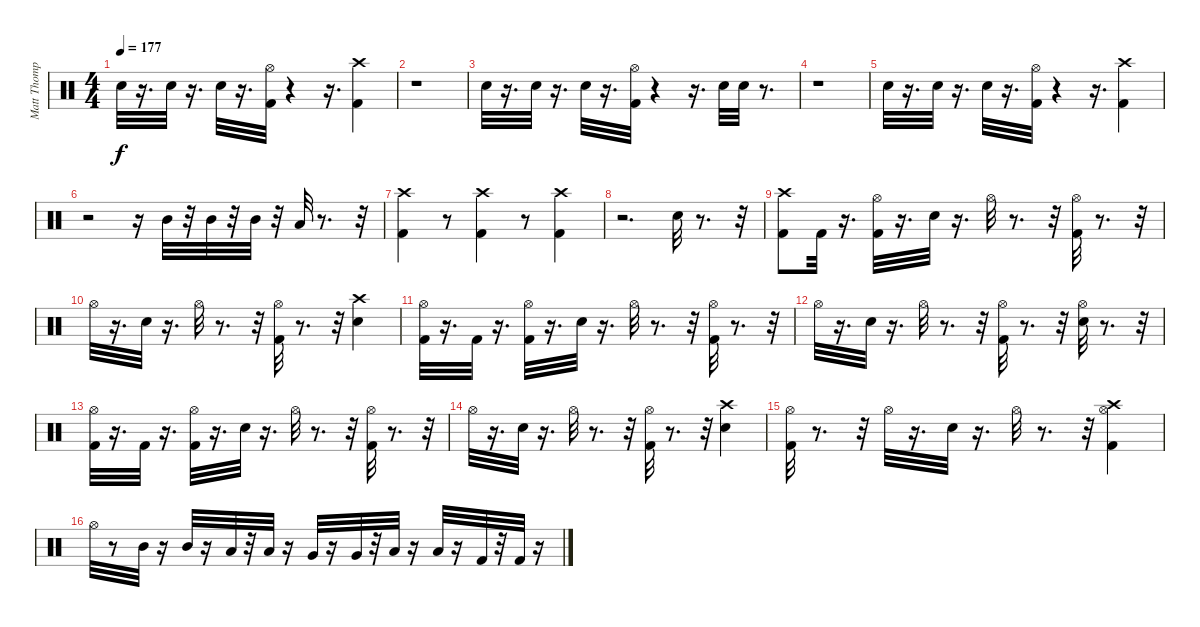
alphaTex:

\track ("Matt Thompson" "Matt Thomp") {instrument percussion}
\staff {score}
\articulation defaults
\ts (4 4)
\tempo 177
\clef neutral
\ks c "Snare (hit) 2".32{dy f}
r.16{d} "Snare (hit) 2".32 r.16{d} "Snare (hit) 2".32 r.16{d} ("Hi-Hat (open)" "Kick (hit) 2").32 r.4 r.16{d} ("Crash high (hit)" "Kick (hit) 2").4 |
r.1 |
"Snare (hit) 2".32 r.16{d} "Snare (hit) 2".32 r.16{d} "Snare (hit) 2".32 r.16{d} ("Hi-Hat (open)" "Kick (hit) 2").32 r.4 r.16{d} "Snare (hit) 2".32 "Snare (hit) 2".32 r.8{d} |
r.1 |
"Snare (hit) 2".32 r.16{d} "Snare (hit) 2".32 r.16{d} "Snare (hit) 2".32 r.16{d} ("Hi-Hat (open)" "Kick (hit) 2").32 r.4 r.16{d} ("Crash high (hit)" "Kick (hit) 2").4 |
r.2 r.16 "Mid Tom (hit)".32 r.32 "Mid Tom (hit)".32 r.32 "Mid Tom (hit)".32 r.32 "Low Tom (hit)".32 r.8{d} r.32 |
("Crash high (hit)" "Kick (hit) 2").4 r.8 ("Crash high (hit)" "Kick (hit) 2").4 r.8 ("Crash high (hit)" "Kick (hit) 2").4 |
r.2{d} "Snare (hit) 2".32 r.8{d} r.32 |
("Crash high (hit)" "Kick (hit) 2").8 "Kick (hit) 2".32 r.16{d} ("Hi-Hat (open)" "Kick (hit) 2").32 r.16{d} "Snare (hit) 2".32 r.16{d} "Hi-Hat (open)".32 r.8{d} r.32 ("Hi-Hat (open)" "Kick (hit) 2").32 r.8{d} r.32 |
"Hi-Hat (open)".32 r.16{d} "Snare (hit) 2".32 r.16{d} "Hi-Hat (open)".32 r.8{d} r.32 ("Hi-Hat (open)" "Kick (hit) 2").32 r.8{d} r.32 ("Crash high (hit)" "Snare (hit) 2").4 |
("Kick (hit) 2" "Hi-Hat (open)").32 r.16{d} "Kick (hit) 2".32 r.16{d} ("Kick (hit) 2" "Hi-Hat (open)").32 r.16{d} "Snare (hit) 2".32 r.16{d} "Hi-Hat (open)".32 r.8{d} r.32 ("Kick (hit) 2" "Hi-Hat (open)").32 r.8{d} r.32 |
"Hi-Hat (open)".32 r.16{d} "Snare (hit) 2".32 r.16{d} "Hi-Hat (open)".32 r.8{d} r.32 ("Hi-Hat (open)" "Kick (hit) 2").32 r.8{d} r.32 ("Hi-Hat (open)" "Snare (hit) 2").32 r.8{d} r.32 |
("Kick (hit) 2" "Hi-Hat (open)").32 r.16{d} "Kick (hit) 2".32 r.16{d} ("Kick (hit) 2" "Hi-Hat (open)").32 r.16{d} "Snare (hit) 2".32 r.16{d} "Hi-Hat (open)".32 r.8{d} r.32 ("Kick (hit) 2" "Hi-Hat (open)").32 r.8{d} r.32 |
"Hi-Hat (open)".32 r.16{d} "Snare (hit) 2".32 r.16{d} "Hi-Hat (open)".32 r.8{d} r.32 ("Kick (hit) 2" "Hi-Hat (open)").32 r.8{d} r.32 ("Crash high (hit)" "Snare (hit) 2").4 |
("Hi-Hat (open)" "Kick (hit) 2").32 r.8{d} r.32 "Hi-Hat (open)".32 r.16{d} "Snare (hit) 2".32 r.16{d} "Hi-Hat (open)".32 r.8{d} r.32 ("Crash high (hit)" "Hi-Hat (open)" "Kick (hit) 2").4 |
"Hi-Hat (open)".32 r.8 "Mid Tom (hit)".32 r.16 "Mid Tom (hit)".32 r.16 "Low Tom (hit)".32 r.32 "Low Tom (hit)".32 r.16 "Very Low Tom (hit)".32 r.16 "Very Low Tom (hit)".32 r.32 "Low Floor Tom (hit)".32 r.16 "Low Floor Tom (hit)".32 r.16 "Kick (hit) 2".32 r.32 "Kick (hit) 2".32 r.16
